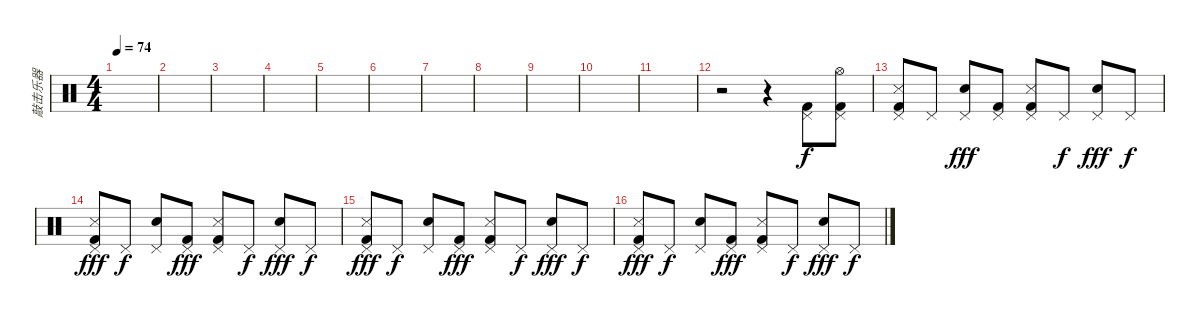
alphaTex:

\track ("敲击乐器" "敲击乐器") {instrument percussion}
\staff {score}
\articulation defaults
\ts (4 4)
\tempo 74
\clef neutral
\ks c
|
|
|
|
|
|
|
|
|
|
|
r.2 r.4 ("Pedal Hi-Hat (hit)" "Kick (hit) 2").8 ("Hi-Hat (open)" "Pedal Hi-Hat (hit)" "Kick (hit) 2").8 |
("Snare (side stick) 3" "Pedal Hi-Hat (hit)" "Kick (hit) 2").8 "Pedal Hi-Hat (hit)".8{dy f} ("Hand Clap (hit)" "Pedal Hi-Hat (hit)").8{dy fff} ("Pedal Hi-Hat (hit)" "Kick (hit) 2").8 ("Snare (side stick) 3" "Pedal Hi-Hat (hit)" "Kick (hit) 2").8 "Pedal Hi-Hat (hit)".8{dy f} ("Hand Clap (hit)" "Pedal Hi-Hat (hit)").8{dy fff} "Pedal Hi-Hat (hit)".8{dy f} |
("Snare (side stick) 3" "Pedal Hi-Hat (hit)" "Kick (hit) 2").8{dy fff} "Pedal Hi-Hat (hit)".8{dy f} ("Hand Clap (hit)" "Pedal Hi-Hat (hit)").8 ("Pedal Hi-Hat (hit)" "Kick (hit) 2").8{dy fff} ("Snare (side stick) 3" "Pedal Hi-Hat (hit)" "Kick (hit) 2").8 "Pedal Hi-Hat (hit)".8{dy f} ("Hand Clap (hit)" "Pedal Hi-Hat (hit)").8{dy fff} "Pedal Hi-Hat (hit)".8{dy f} |
("Snare (side stick) 3" "Pedal Hi-Hat (hit)" "Kick (hit) 2").8{dy fff} "Pedal Hi-Hat (hit)".8{dy f} ("Hand Clap (hit)" "Pedal Hi-Hat (hit)").8 ("Pedal Hi-Hat (hit)" "Kick (hit) 2").8{dy fff} ("Snare (side stick) 3" "Pedal Hi-Hat (hit)" "Kick (hit) 2").8 "Pedal Hi-Hat (hit)".8{dy f} ("Hand Clap (hit)" "Pedal Hi-Hat (hit)").8{dy fff} "Pedal Hi-Hat (hit)".8{dy f} |
("Snare (side stick) 3" "Pedal Hi-Hat (hit)" "Kick (hit) 2").8{dy fff} "Pedal Hi-Hat (hit)".8{dy f} ("Hand Clap (hit)" "Pedal Hi-Hat (hit)").8 ("Pedal Hi-Hat (hit)" "Kick (hit) 2").8{dy fff} ("Snare (side stick) 3" "Pedal Hi-Hat (hit)" "Kick (hit) 2").8 "Pedal Hi-Hat (hit)".8{dy f} ("Hand Clap (hit)" "Pedal Hi-Hat (hit)").8{dy fff} "Pedal Hi-Hat (hit)".8{dy f}
